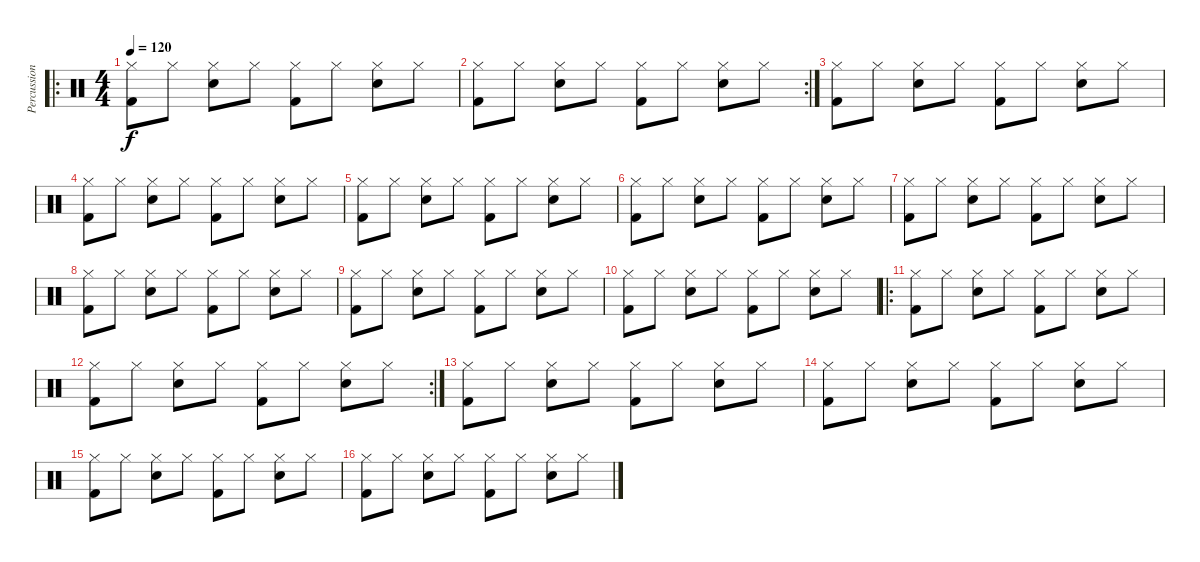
\track ("Percussions" "Percussion") {instrument percussion}
\staff {score}
\articulation defaults
\ro
\ts (4 4)
\tempo 120
\clef neutral
\ks c
("Hi-Hat (closed)" "Kick (hit) 2").8{dy f} "Hi-Hat (closed)".8 ("Hi-Hat (closed)" "Electric Snare (hit)").8 "Hi-Hat (closed)".8 ("Hi-Hat (closed)" "Kick (hit) 2").8 "Hi-Hat (closed)".8 ("Hi-Hat (closed)" "Electric Snare (hit)").8 "Hi-Hat (closed)".8 |
\rc 2
("Hi-Hat (closed)" "Kick (hit) 2").8 "Hi-Hat (closed)".8 ("Hi-Hat (closed)" "Electric Snare (hit)").8 "Hi-Hat (closed)".8 ("Hi-Hat (closed)" "Kick (hit) 2").8 "Hi-Hat (closed)".8 ("Hi-Hat (closed)" "Electric Snare (hit)").8 "Hi-Hat (closed)".8 |
("Hi-Hat (closed)" "Kick (hit) 2").8 "Hi-Hat (closed)".8 ("Hi-Hat (closed)" "Electric Snare (hit)").8 "Hi-Hat (closed)".8 ("Hi-Hat (closed)" "Kick (hit) 2").8 "Hi-Hat (closed)".8 ("Hi-Hat (closed)" "Electric Snare (hit)").8 "Hi-Hat (closed)".8 |
("Hi-Hat (closed)" "Kick (hit) 2").8 "Hi-Hat (closed)".8 ("Hi-Hat (closed)" "Electric Snare (hit)").8 "Hi-Hat (closed)".8 ("Hi-Hat (closed)" "Kick (hit) 2").8 "Hi-Hat (closed)".8 ("Hi-Hat (closed)" "Electric Snare (hit)").8 "Hi-Hat (closed)".8 |
("Hi-Hat (closed)" "Kick (hit) 2").8 "Hi-Hat (closed)".8 ("Hi-Hat (closed)" "Electric Snare (hit)").8 "Hi-Hat (closed)".8 ("Hi-Hat (closed)" "Kick (hit) 2").8 "Hi-Hat (closed)".8 ("Hi-Hat (closed)" "Electric Snare (hit)").8 "Hi-Hat (closed)".8 |
("Hi-Hat (closed)" "Kick (hit) 2").8 "Hi-Hat (closed)".8 ("Hi-Hat (closed)" "Electric Snare (hit)").8 "Hi-Hat (closed)".8 ("Hi-Hat (closed)" "Kick (hit) 2").8 "Hi-Hat (closed)".8 ("Hi-Hat (closed)" "Electric Snare (hit)").8 "Hi-Hat (closed)".8 |
("Hi-Hat (closed)" "Kick (hit) 2").8 "Hi-Hat (closed)".8 ("Hi-Hat (closed)" "Electric Snare (hit)").8 "Hi-Hat (closed)".8 ("Hi-Hat (closed)" "Kick (hit) 2").8 "Hi-Hat (closed)".8 ("Hi-Hat (closed)" "Electric Snare (hit)").8 "Hi-Hat (closed)".8 |
("Hi-Hat (closed)" "Kick (hit) 2").8 "Hi-Hat (closed)".8 ("Hi-Hat (closed)" "Electric Snare (hit)").8 "Hi-Hat (closed)".8 ("Hi-Hat (closed)" "Kick (hit) 2").8 "Hi-Hat (closed)".8 ("Hi-Hat (closed)" "Electric Snare (hit)").8 "Hi-Hat (closed)".8 |
("Hi-Hat (closed)" "Kick (hit) 2").8 "Hi-Hat (closed)".8 ("Hi-Hat (closed)" "Electric Snare (hit)").8 "Hi-Hat (closed)".8 ("Hi-Hat (closed)" "Kick (hit) 2").8 "Hi-Hat (closed)".8 ("Hi-Hat (closed)" "Electric Snare (hit)").8 "Hi-Hat (closed)".8 |
("Hi-Hat (closed)" "Kick (hit) 2").8 "Hi-Hat (closed)".8 ("Hi-Hat (closed)" "Electric Snare (hit)").8 "Hi-Hat (closed)".8 ("Hi-Hat (closed)" "Kick (hit) 2").8 "Hi-Hat (closed)".8 ("Hi-Hat (closed)" "Electric Snare (hit)").8 "Hi-Hat (closed)".8 |
\ro
("Hi-Hat (closed)" "Kick (hit) 2").8 "Hi-Hat (closed)".8 ("Hi-Hat (closed)" "Electric Snare (hit)").8 "Hi-Hat (closed)".8 ("Hi-Hat (closed)" "Kick (hit) 2").8 "Hi-Hat (closed)".8 ("Hi-Hat (closed)" "Electric Snare (hit)").8 "Hi-Hat (closed)".8 |
\rc 2
("Hi-Hat (closed)" "Kick (hit) 2").8 "Hi-Hat (closed)".8 ("Hi-Hat (closed)" "Electric Snare (hit)").8 "Hi-Hat (closed)".8 ("Hi-Hat (closed)" "Kick (hit) 2").8 "Hi-Hat (closed)".8 ("Hi-Hat (closed)" "Electric Snare (hit)").8 "Hi-Hat (closed)".8 |
("Hi-Hat (closed)" "Kick (hit) 2").8 "Hi-Hat (closed)".8 ("Hi-Hat (closed)" "Electric Snare (hit)").8 "Hi-Hat (closed)".8 ("Hi-Hat (closed)" "Kick (hit) 2").8 "Hi-Hat (closed)".8 ("Hi-Hat (closed)" "Electric Snare (hit)").8 "Hi-Hat (closed)".8 |
("Hi-Hat (closed)" "Kick (hit) 2").8 "Hi-Hat (closed)".8 ("Hi-Hat (closed)" "Electric Snare (hit)").8 "Hi-Hat (closed)".8 ("Hi-Hat (closed)" "Kick (hit) 2").8 "Hi-Hat (closed)".8 ("Hi-Hat (closed)" "Electric Snare (hit)").8 "Hi-Hat (closed)".8 |
("Hi-Hat (closed)" "Kick (hit) 2").8 "Hi-Hat (closed)".8 ("Hi-Hat (closed)" "Electric Snare (hit)").8 "Hi-Hat (closed)".8 ("Hi-Hat (closed)" "Kick (hit) 2").8 "Hi-Hat (closed)".8 ("Hi-Hat (closed)" "Electric Snare (hit)").8 "Hi-Hat (closed)".8 |
("Hi-Hat (closed)" "Kick (hit) 2").8 "Hi-Hat (closed)".8 ("Hi-Hat (closed)" "Electric Snare (hit)").8 "Hi-Hat (closed)".8 ("Hi-Hat (closed)" "Kick (hit) 2").8 "Hi-Hat (closed)".8 ("Hi-Hat (closed)" "Electric Snare (hit)").8 "Hi-Hat (closed)".8
